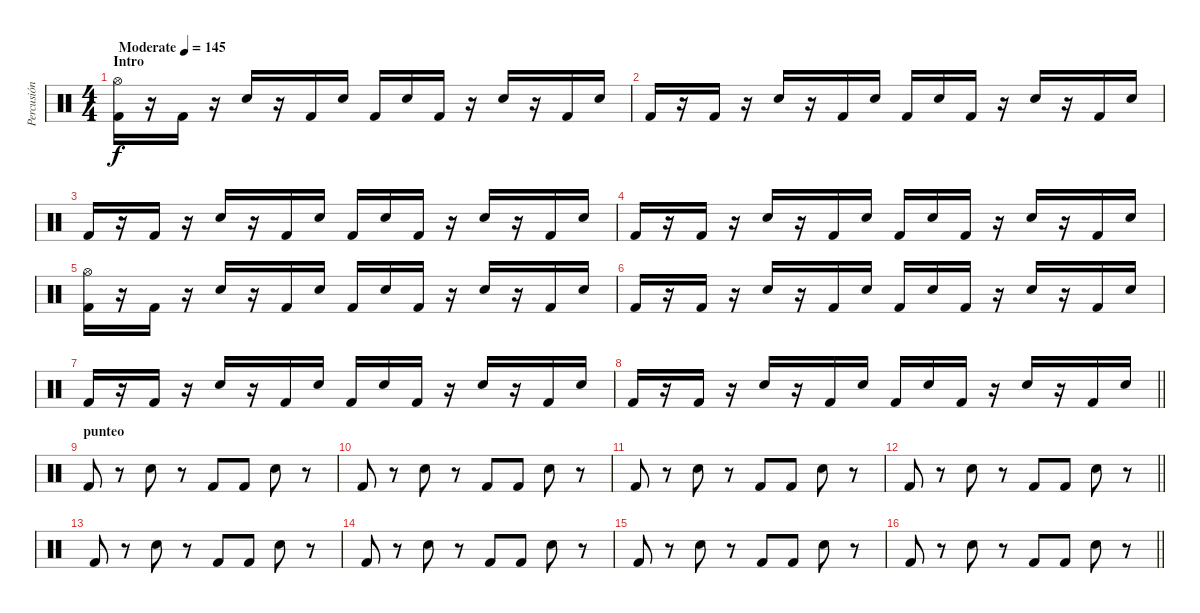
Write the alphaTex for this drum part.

\track ("Percusión" "Percusión") {instrument percussion}
\staff {score}
\articulation defaults
\ts (4 4)
\section ("" "Intro")
\tempo (145 "Moderate")
\clef neutral
\ks c
("Hi-Hat (open)" "Kick (hit) 2").16{dy f} r.16 "Kick (hit) 2".16 r.16 "Snare (hit) 2".16 r.16 "Kick (hit) 2".16 "Snare (hit) 2".16 "Kick (hit) 2".16 "Snare (hit) 2".16 "Kick (hit) 2".16 r.16 "Snare (hit) 2".16 r.16 "Kick (hit) 2".16 "Snare (hit) 2".16 |
"Kick (hit) 2".16 r.16 "Kick (hit) 2".16 r.16 "Snare (hit) 2".16 r.16 "Kick (hit) 2".16 "Snare (hit) 2".16 "Kick (hit) 2".16 "Snare (hit) 2".16 "Kick (hit) 2".16 r.16 "Snare (hit) 2".16 r.16 "Kick (hit) 2".16 "Snare (hit) 2".16 |
"Kick (hit) 2".16 r.16 "Kick (hit) 2".16 r.16 "Snare (hit) 2".16 r.16 "Kick (hit) 2".16 "Snare (hit) 2".16 "Kick (hit) 2".16 "Snare (hit) 2".16 "Kick (hit) 2".16 r.16 "Snare (hit) 2".16 r.16 "Kick (hit) 2".16 "Snare (hit) 2".16 |
"Kick (hit) 2".16 r.16 "Kick (hit) 2".16 r.16 "Snare (hit) 2".16 r.16 "Kick (hit) 2".16 "Snare (hit) 2".16 "Kick (hit) 2".16 "Snare (hit) 2".16 "Kick (hit) 2".16 r.16 "Snare (hit) 2".16 r.16 "Kick (hit) 2".16 "Snare (hit) 2".16 |
("Hi-Hat (open)" "Kick (hit) 2").16 r.16 "Kick (hit) 2".16 r.16 "Snare (hit) 2".16 r.16 "Kick (hit) 2".16 "Snare (hit) 2".16 "Kick (hit) 2".16 "Snare (hit) 2".16 "Kick (hit) 2".16 r.16 "Snare (hit) 2".16 r.16 "Kick (hit) 2".16 "Snare (hit) 2".16 |
"Kick (hit) 2".16 r.16 "Kick (hit) 2".16 r.16 "Snare (hit) 2".16 r.16 "Kick (hit) 2".16 "Snare (hit) 2".16 "Kick (hit) 2".16 "Snare (hit) 2".16 "Kick (hit) 2".16 r.16 "Snare (hit) 2".16 r.16 "Kick (hit) 2".16 "Snare (hit) 2".16 |
"Kick (hit) 2".16 r.16 "Kick (hit) 2".16 r.16 "Snare (hit) 2".16 r.16 "Kick (hit) 2".16 "Snare (hit) 2".16 "Kick (hit) 2".16 "Snare (hit) 2".16 "Kick (hit) 2".16 r.16 "Snare (hit) 2".16 r.16 "Kick (hit) 2".16 "Snare (hit) 2".16 |
\barLineRight lightlight "Kick (hit) 2".16
r.16 "Kick (hit) 2".16 r.16 "Snare (hit) 2".16 r.16 "Kick (hit) 2".16 "Snare (hit) 2".16 "Kick (hit) 2".16 "Snare (hit) 2".16 "Kick (hit) 2".16 r.16 "Snare (hit) 2".16 r.16 "Kick (hit) 2".16 "Snare (hit) 2".16 |
\section ("" "punteo")
"Kick (hit) 2".8 r.8 "Snare (hit) 2".8 r.8 "Kick (hit) 2".8 "Kick (hit) 2".8 "Snare (hit) 2".8 r.8 |
"Kick (hit) 2".8 r.8 "Snare (hit) 2".8 r.8 "Kick (hit) 2".8 "Kick (hit) 2".8 "Snare (hit) 2".8 r.8 |
"Kick (hit) 2".8 r.8 "Snare (hit) 2".8 r.8 "Kick (hit) 2".8 "Kick (hit) 2".8 "Snare (hit) 2".8 r.8 |
\barLineRight lightlight "Kick (hit) 2".8
r.8 "Snare (hit) 2".8 r.8 "Kick (hit) 2".8 "Kick (hit) 2".8 "Snare (hit) 2".8 r.8 |
\section ("" "")
"Kick (hit) 2".8 r.8 "Snare (hit) 2".8 r.8 "Kick (hit) 2".8 "Kick (hit) 2".8 "Snare (hit) 2".8 r.8 |
"Kick (hit) 2".8 r.8 "Snare (hit) 2".8 r.8 "Kick (hit) 2".8 "Kick (hit) 2".8 "Snare (hit) 2".8 r.8 |
"Kick (hit) 2".8 r.8 "Snare (hit) 2".8 r.8 "Kick (hit) 2".8 "Kick (hit) 2".8 "Snare (hit) 2".8 r.8 |
\barLineRight lightlight "Kick (hit) 2".8
r.8 "Snare (hit) 2".8 r.8 "Kick (hit) 2".8 "Kick (hit) 2".8 "Snare (hit) 2".8 r.8
